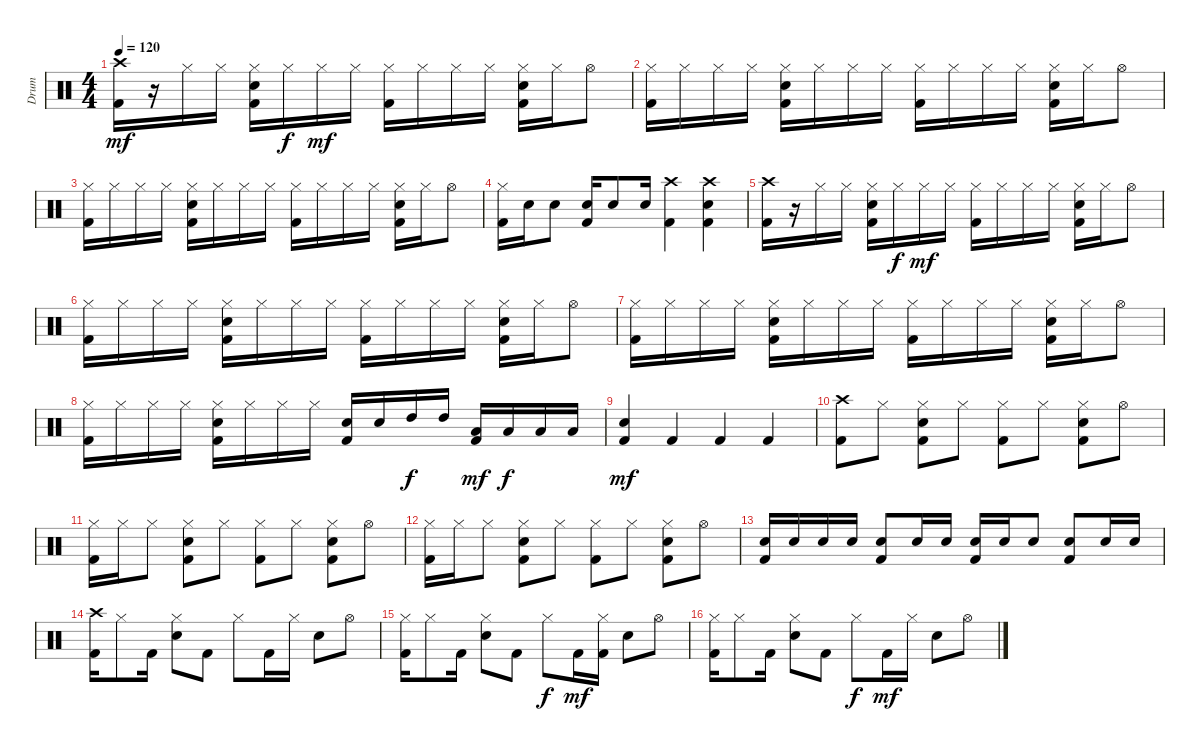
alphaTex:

\track ("Drum" "Drum") {instrument percussion}
\staff {score}
\articulation defaults
\ts (4 4)
\tempo 120
\clef neutral
\ks c
("Crash high (hit)" "Kick (hit) 2").16{dy mf} r.16 "Hi-Hat (closed)".16 "Hi-Hat (closed)".16 ("Hi-Hat (closed)" "Snare (hit) 2" "Kick (hit) 2").16 "Hi-Hat (closed)".16{dy f} "Hi-Hat (closed)".16{dy mf} "Hi-Hat (closed)".16 ("Hi-Hat (closed)" "Kick (hit) 2").16 "Hi-Hat (closed)".16 "Hi-Hat (closed)".16 "Hi-Hat (closed)".16 ("Hi-Hat (closed)" "Snare (hit) 2" "Kick (hit) 2").16 "Hi-Hat (closed)".16 "Hi-Hat (open)".8 |
("Hi-Hat (closed)" "Kick (hit) 2").16 "Hi-Hat (closed)".16 "Hi-Hat (closed)".16 "Hi-Hat (closed)".16 ("Hi-Hat (closed)" "Snare (hit) 2" "Kick (hit) 2").16 "Hi-Hat (closed)".16 "Hi-Hat (closed)".16 "Hi-Hat (closed)".16 ("Hi-Hat (closed)" "Kick (hit) 2").16 "Hi-Hat (closed)".16 "Hi-Hat (closed)".16 "Hi-Hat (closed)".16 ("Hi-Hat (closed)" "Snare (hit) 2" "Kick (hit) 2").16 "Hi-Hat (closed)".16 "Hi-Hat (open)".8 |
("Hi-Hat (closed)" "Kick (hit) 2").16 "Hi-Hat (closed)".16 "Hi-Hat (closed)".16 "Hi-Hat (closed)".16 ("Hi-Hat (closed)" "Snare (hit) 2" "Kick (hit) 2").16 "Hi-Hat (closed)".16 "Hi-Hat (closed)".16 "Hi-Hat (closed)".16 ("Hi-Hat (closed)" "Kick (hit) 2").16 "Hi-Hat (closed)".16 "Hi-Hat (closed)".16 "Hi-Hat (closed)".16 ("Hi-Hat (closed)" "Snare (hit) 2" "Kick (hit) 2").16 "Hi-Hat (closed)".16 "Hi-Hat (open)".8 |
("Hi-Hat (closed)" "Kick (hit) 2").16 "Snare (hit) 2".16 "Snare (hit) 2".8 ("Snare (hit) 2" "Kick (hit) 2").16 "Snare (hit) 2".8 "Snare (hit) 2".16 ("Crash high (hit)" "Kick (hit) 2").4 ("Crash high (hit)" "Snare (hit) 2" "Kick (hit) 2").4 |
("Crash high (hit)" "Kick (hit) 2").16 r.16 "Hi-Hat (closed)".16 "Hi-Hat (closed)".16 ("Hi-Hat (closed)" "Snare (hit) 2" "Kick (hit) 2").16 "Hi-Hat (closed)".16{dy f} "Hi-Hat (closed)".16{dy mf} "Hi-Hat (closed)".16 ("Hi-Hat (closed)" "Kick (hit) 2").16 "Hi-Hat (closed)".16 "Hi-Hat (closed)".16 "Hi-Hat (closed)".16 ("Hi-Hat (closed)" "Snare (hit) 2" "Kick (hit) 2").16 "Hi-Hat (closed)".16 "Hi-Hat (open)".8 |
("Hi-Hat (closed)" "Kick (hit) 2").16 "Hi-Hat (closed)".16 "Hi-Hat (closed)".16 "Hi-Hat (closed)".16 ("Hi-Hat (closed)" "Snare (hit) 2" "Kick (hit) 2").16 "Hi-Hat (closed)".16 "Hi-Hat (closed)".16 "Hi-Hat (closed)".16 ("Hi-Hat (closed)" "Kick (hit) 2").16 "Hi-Hat (closed)".16 "Hi-Hat (closed)".16 "Hi-Hat (closed)".16 ("Hi-Hat (closed)" "Snare (hit) 2" "Kick (hit) 2").16 "Hi-Hat (closed)".16 "Hi-Hat (open)".8 |
("Hi-Hat (closed)" "Kick (hit) 2").16 "Hi-Hat (closed)".16 "Hi-Hat (closed)".16 "Hi-Hat (closed)".16 ("Hi-Hat (closed)" "Snare (hit) 2" "Kick (hit) 2").16 "Hi-Hat (closed)".16 "Hi-Hat (closed)".16 "Hi-Hat (closed)".16 ("Hi-Hat (closed)" "Kick (hit) 2").16 "Hi-Hat (closed)".16 "Hi-Hat (closed)".16 "Hi-Hat (closed)".16 ("Hi-Hat (closed)" "Snare (hit) 2" "Kick (hit) 2").16 "Hi-Hat (closed)".16 "Hi-Hat (open)".8 |
("Hi-Hat (closed)" "Kick (hit) 2").16 "Hi-Hat (closed)".16 "Hi-Hat (closed)".16 "Hi-Hat (closed)".16 ("Hi-Hat (closed)" "Snare (hit) 2" "Kick (hit) 2").16 "Hi-Hat (closed)".16 "Hi-Hat (closed)".16 "Hi-Hat (closed)".16 ("Snare (hit) 2" "Kick (hit) 2").16 "Snare (hit) 2".16 "High Tom (hit)".16{dy f} "High Tom (hit)".16 ("Low Tom (hit)" "Kick (hit) 2").16{dy mf} "Low Tom (hit)".16{dy f} "Low Floor Tom (hit)".16 "Low Floor Tom (hit)".16 |
("Snare (hit) 2" "Kick (hit) 2").4{dy mf} "Kick (hit) 2".4 "Kick (hit) 2".4 "Kick (hit) 2".4 |
("Crash high (hit)" "Kick (hit) 2").8 "Hi-Hat (closed)".8 ("Hi-Hat (closed)" "Snare (hit) 2" "Kick (hit) 2").8 "Hi-Hat (closed)".8 ("Hi-Hat (closed)" "Kick (hit) 2").8 "Hi-Hat (closed)".8 ("Hi-Hat (closed)" "Snare (hit) 2" "Kick (hit) 2").8 "Hi-Hat (open)".8 |
("Hi-Hat (closed)" "Kick (hit) 2").16 "Hi-Hat (closed)".16 "Hi-Hat (closed)".8 ("Hi-Hat (closed)" "Snare (hit) 2" "Kick (hit) 2").8 "Hi-Hat (closed)".8 ("Hi-Hat (closed)" "Kick (hit) 2").8 "Hi-Hat (closed)".8 ("Hi-Hat (closed)" "Snare (hit) 2" "Kick (hit) 2").8 "Hi-Hat (open)".8 |
("Hi-Hat (closed)" "Kick (hit) 2").16 "Hi-Hat (closed)".16 "Hi-Hat (closed)".8 ("Hi-Hat (closed)" "Snare (hit) 2" "Kick (hit) 2").8 "Hi-Hat (closed)".8 ("Hi-Hat (closed)" "Kick (hit) 2").8 "Hi-Hat (closed)".8 ("Hi-Hat (closed)" "Snare (hit) 2" "Kick (hit) 2").8 "Hi-Hat (open)".8 |
("Snare (hit) 2" "Kick (hit) 2").16 "Snare (hit) 2".16 "Snare (hit) 2".16 "Snare (hit) 2".16 ("Snare (hit) 2" "Kick (hit) 2").8 "Snare (hit) 2".16 "Snare (hit) 2".16 ("Snare (hit) 2" "Kick (hit) 2").16 "Snare (hit) 2".16 "Snare (hit) 2".8 ("Snare (hit) 2" "Kick (hit) 2").8 "Snare (hit) 2".16 "Snare (hit) 2".16 |
("Crash high (hit)" "Kick (hit) 2").16 "Hi-Hat (closed)".8 "Kick (hit) 2".16 ("Hi-Hat (closed)" "Snare (hit) 2").8 "Kick (hit) 2".8 "Hi-Hat (closed)".8 "Kick (hit) 2".16 "Hi-Hat (closed)".16 "Snare (hit) 2".8 "Hi-Hat (open)".8 |
("Hi-Hat (closed)" "Kick (hit) 2").16 "Hi-Hat (closed)".8 "Kick (hit) 2".16 ("Hi-Hat (closed)" "Snare (hit) 2").8 "Kick (hit) 2".8 "Hi-Hat (closed)".8{dy f} "Kick (hit) 2".16{dy mf} ("Hi-Hat (closed)" "Kick (hit) 2").16 "Snare (hit) 2".8 "Hi-Hat (open)".8 |
("Hi-Hat (closed)" "Kick (hit) 2").16 "Hi-Hat (closed)".8 "Kick (hit) 2".16 ("Hi-Hat (closed)" "Snare (hit) 2").8 "Kick (hit) 2".8 "Hi-Hat (closed)".8{dy f} "Kick (hit) 2".16{dy mf} "Hi-Hat (closed)".16 "Snare (hit) 2".8 "Hi-Hat (open)".8
